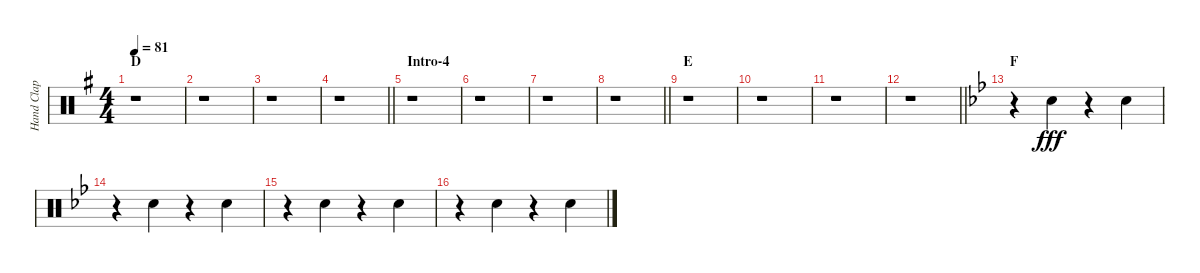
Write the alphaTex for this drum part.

\track ("Hand Clap" "Hand Clap") {instrument percussion}
\staff {score}
\articulation defaults
\ts (4 4)
\section ("" "D")
\tempo 81
\clef neutral
\ks g
r.1{dy fff} |
r.1 |
r.1 |
\barLineRight lightlight
r.1 |
\section ("" "Intro-4")
r.1 |
r.1 |
r.1 |
\barLineRight lightlight
r.1 |
\section ("" "E")
r.1 |
r.1 |
r.1 |
\barLineRight lightlight
r.1 |
\section ("" "F")
\ks bb
r.4 "Hand Clap (hit)".4 r.4 "Hand Clap (hit)".4 |
r.4 "Hand Clap (hit)".4 r.4 "Hand Clap (hit)".4 |
r.4 "Hand Clap (hit)".4 r.4 "Hand Clap (hit)".4 |
r.4 "Hand Clap (hit)".4 r.4 "Hand Clap (hit)".4
